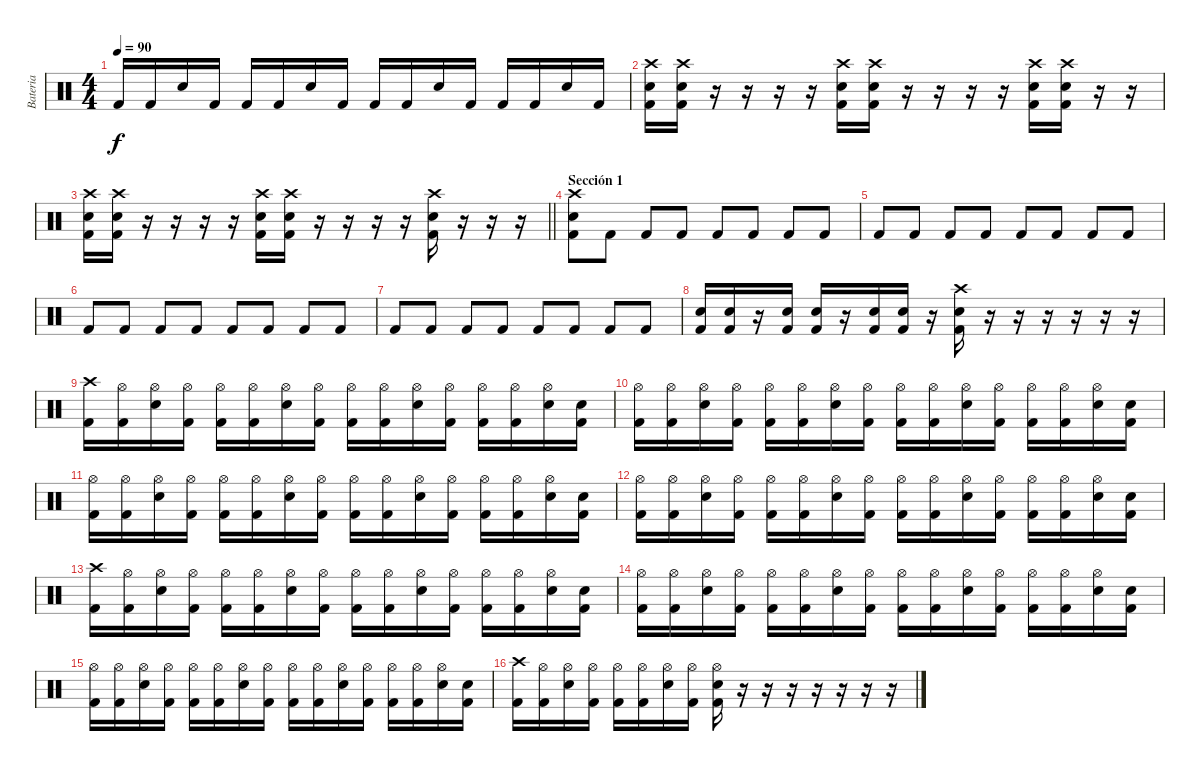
\track ("Bateria" "Bateria") {instrument percussion}
\staff {score}
\articulation defaults
\ts (4 4)
\tempo 90
\clef neutral
\ks c "Kick (hit) 2".16{dy f} "Kick (hit) 2".16 "Electric Snare (hit)".16 "Kick (hit) 2".16 "Kick (hit) 2".16 "Kick (hit) 2".16 "Electric Snare (hit)".16 "Kick (hit) 2".16 "Kick (hit) 2".16 "Kick (hit) 2".16 "Electric Snare (hit)".16 "Kick (hit) 2".16 "Kick (hit) 2".16 "Kick (hit) 2".16 "Electric Snare (hit)".16 "Kick (hit) 2".16
|
("Kick (hit) 2" "Electric Snare (hit)" "Crash high (hit)").16 ("Kick (hit) 2" "Electric Snare (hit)" "Crash high (hit)").16 r.16 r.16 r.16 r.16 ("Kick (hit) 2" "Electric Snare (hit)" "Crash high (hit)").16 ("Kick (hit) 2" "Electric Snare (hit)" "Crash high (hit)").16 r.16 r.16 r.16 r.16 ("Kick (hit) 2" "Electric Snare (hit)" "Crash high (hit)").16 ("Kick (hit) 2" "Electric Snare (hit)" "Crash high (hit)").16 r.16 r.16 |
\barLineRight lightlight
("Kick (hit) 2" "Electric Snare (hit)" "Crash high (hit)").16 ("Kick (hit) 2" "Electric Snare (hit)" "Crash high (hit)").16 r.16 r.16 r.16 r.16 ("Kick (hit) 2" "Electric Snare (hit)" "Crash high (hit)").16 ("Kick (hit) 2" "Electric Snare (hit)" "Crash high (hit)").16 r.16 r.16 r.16 r.16 ("Kick (hit) 2" "Electric Snare (hit)" "Crash high (hit)").16 r.16 r.16 r.16 |
\section ("" "Sección 1")
("Kick (hit) 2" "Electric Snare (hit)" "Crash high (hit)").8 "Kick (hit) 2".8 "Kick (hit) 2".8 "Kick (hit) 2".8 "Kick (hit) 2".8 "Kick (hit) 2".8 "Kick (hit) 2".8 "Kick (hit) 2".8 |
"Kick (hit) 2".8 "Kick (hit) 2".8 "Kick (hit) 2".8 "Kick (hit) 2".8 "Kick (hit) 2".8 "Kick (hit) 2".8 "Kick (hit) 2".8 "Kick (hit) 2".8 |
"Kick (hit) 2".8 "Kick (hit) 2".8 "Kick (hit) 2".8 "Kick (hit) 2".8 "Kick (hit) 2".8 "Kick (hit) 2".8 "Kick (hit) 2".8 "Kick (hit) 2".8 |
"Kick (hit) 2".8 "Kick (hit) 2".8 "Kick (hit) 2".8 "Kick (hit) 2".8 "Kick (hit) 2".8 "Kick (hit) 2".8 "Kick (hit) 2".8 "Kick (hit) 2".8 |
("Kick (hit) 2" "Electric Snare (hit)").16 ("Kick (hit) 2" "Electric Snare (hit)").16 r.16 ("Kick (hit) 2" "Electric Snare (hit)").16 ("Kick (hit) 2" "Electric Snare (hit)").16 r.16 ("Kick (hit) 2" "Electric Snare (hit)").16 ("Kick (hit) 2" "Electric Snare (hit)").16 r.16 ("Kick (hit) 2" "Electric Snare (hit)" "Crash high (hit)").16 r.16 r.16 r.16 r.16 r.16 r.16 |
("Kick (hit) 2" "Crash high (hit)").16 ("Kick (hit) 2" "Hi-Hat (open)").16 ("Electric Snare (hit)" "Hi-Hat (open)").16 ("Kick (hit) 2" "Hi-Hat (open)").16 ("Kick (hit) 2" "Hi-Hat (open)").16 ("Kick (hit) 2" "Hi-Hat (open)").16 ("Electric Snare (hit)" "Hi-Hat (open)").16 ("Kick (hit) 2" "Hi-Hat (open)").16 ("Kick (hit) 2" "Hi-Hat (open)").16 ("Kick (hit) 2" "Hi-Hat (open)").16 ("Electric Snare (hit)" "Hi-Hat (open)").16 ("Kick (hit) 2" "Hi-Hat (open)").16 ("Kick (hit) 2" "Hi-Hat (open)").16 ("Kick (hit) 2" "Hi-Hat (open)").16 ("Electric Snare (hit)" "Hi-Hat (open)").16 ("Kick (hit) 2" "Electric Snare (hit)").16 |
("Kick (hit) 2" "Hi-Hat (open)").16 ("Kick (hit) 2" "Hi-Hat (open)").16 ("Electric Snare (hit)" "Hi-Hat (open)").16 ("Kick (hit) 2" "Hi-Hat (open)").16 ("Kick (hit) 2" "Hi-Hat (open)").16 ("Kick (hit) 2" "Hi-Hat (open)").16 ("Electric Snare (hit)" "Hi-Hat (open)").16 ("Kick (hit) 2" "Hi-Hat (open)").16 ("Kick (hit) 2" "Hi-Hat (open)").16 ("Kick (hit) 2" "Hi-Hat (open)").16 ("Electric Snare (hit)" "Hi-Hat (open)").16 ("Kick (hit) 2" "Hi-Hat (open)").16 ("Kick (hit) 2" "Hi-Hat (open)").16 ("Kick (hit) 2" "Hi-Hat (open)").16 ("Electric Snare (hit)" "Hi-Hat (open)").16 ("Kick (hit) 2" "Electric Snare (hit)").16 |
("Kick (hit) 2" "Hi-Hat (open)").16 ("Kick (hit) 2" "Hi-Hat (open)").16 ("Electric Snare (hit)" "Hi-Hat (open)").16 ("Kick (hit) 2" "Hi-Hat (open)").16 ("Kick (hit) 2" "Hi-Hat (open)").16 ("Kick (hit) 2" "Hi-Hat (open)").16 ("Electric Snare (hit)" "Hi-Hat (open)").16 ("Kick (hit) 2" "Hi-Hat (open)").16 ("Kick (hit) 2" "Hi-Hat (open)").16 ("Kick (hit) 2" "Hi-Hat (open)").16 ("Electric Snare (hit)" "Hi-Hat (open)").16 ("Kick (hit) 2" "Hi-Hat (open)").16 ("Kick (hit) 2" "Hi-Hat (open)").16 ("Kick (hit) 2" "Hi-Hat (open)").16 ("Electric Snare (hit)" "Hi-Hat (open)").16 ("Kick (hit) 2" "Electric Snare (hit)").16 |
("Kick (hit) 2" "Hi-Hat (open)").16 ("Kick (hit) 2" "Hi-Hat (open)").16 ("Electric Snare (hit)" "Hi-Hat (open)").16 ("Kick (hit) 2" "Hi-Hat (open)").16 ("Kick (hit) 2" "Hi-Hat (open)").16 ("Kick (hit) 2" "Hi-Hat (open)").16 ("Electric Snare (hit)" "Hi-Hat (open)").16 ("Kick (hit) 2" "Hi-Hat (open)").16 ("Kick (hit) 2" "Hi-Hat (open)").16 ("Kick (hit) 2" "Hi-Hat (open)").16 ("Electric Snare (hit)" "Hi-Hat (open)").16 ("Kick (hit) 2" "Hi-Hat (open)").16 ("Kick (hit) 2" "Hi-Hat (open)").16 ("Kick (hit) 2" "Hi-Hat (open)").16 ("Electric Snare (hit)" "Hi-Hat (open)").16 ("Kick (hit) 2" "Electric Snare (hit)").16 |
("Kick (hit) 2" "Crash high (hit)").16 ("Kick (hit) 2" "Hi-Hat (open)").16 ("Electric Snare (hit)" "Hi-Hat (open)").16 ("Kick (hit) 2" "Hi-Hat (open)").16 ("Kick (hit) 2" "Hi-Hat (open)").16 ("Kick (hit) 2" "Hi-Hat (open)").16 ("Electric Snare (hit)" "Hi-Hat (open)").16 ("Kick (hit) 2" "Hi-Hat (open)").16 ("Kick (hit) 2" "Hi-Hat (open)").16 ("Kick (hit) 2" "Hi-Hat (open)").16 ("Electric Snare (hit)" "Hi-Hat (open)").16 ("Kick (hit) 2" "Hi-Hat (open)").16 ("Kick (hit) 2" "Hi-Hat (open)").16 ("Kick (hit) 2" "Hi-Hat (open)").16 ("Electric Snare (hit)" "Hi-Hat (open)").16 ("Kick (hit) 2" "Electric Snare (hit)").16 |
("Kick (hit) 2" "Hi-Hat (open)").16 ("Kick (hit) 2" "Hi-Hat (open)").16 ("Electric Snare (hit)" "Hi-Hat (open)").16 ("Kick (hit) 2" "Hi-Hat (open)").16 ("Kick (hit) 2" "Hi-Hat (open)").16 ("Kick (hit) 2" "Hi-Hat (open)").16 ("Electric Snare (hit)" "Hi-Hat (open)").16 ("Kick (hit) 2" "Hi-Hat (open)").16 ("Kick (hit) 2" "Hi-Hat (open)").16 ("Kick (hit) 2" "Hi-Hat (open)").16 ("Electric Snare (hit)" "Hi-Hat (open)").16 ("Kick (hit) 2" "Hi-Hat (open)").16 ("Kick (hit) 2" "Hi-Hat (open)").16 ("Kick (hit) 2" "Hi-Hat (open)").16 ("Electric Snare (hit)" "Hi-Hat (open)").16 ("Kick (hit) 2" "Electric Snare (hit)").16 |
("Kick (hit) 2" "Hi-Hat (open)").16 ("Kick (hit) 2" "Hi-Hat (open)").16 ("Electric Snare (hit)" "Hi-Hat (open)").16 ("Kick (hit) 2" "Hi-Hat (open)").16 ("Kick (hit) 2" "Hi-Hat (open)").16 ("Kick (hit) 2" "Hi-Hat (open)").16 ("Electric Snare (hit)" "Hi-Hat (open)").16 ("Kick (hit) 2" "Hi-Hat (open)").16 ("Kick (hit) 2" "Hi-Hat (open)").16 ("Kick (hit) 2" "Hi-Hat (open)").16 ("Electric Snare (hit)" "Hi-Hat (open)").16 ("Kick (hit) 2" "Hi-Hat (open)").16 ("Kick (hit) 2" "Hi-Hat (open)").16 ("Kick (hit) 2" "Hi-Hat (open)").16 ("Electric Snare (hit)" "Hi-Hat (open)").16 ("Kick (hit) 2" "Electric Snare (hit)").16 |
("Kick (hit) 2" "Crash high (hit)").16 ("Kick (hit) 2" "Hi-Hat (open)").16 ("Electric Snare (hit)" "Hi-Hat (open)").16 ("Kick (hit) 2" "Hi-Hat (open)").16 ("Kick (hit) 2" "Hi-Hat (open)").16 ("Kick (hit) 2" "Hi-Hat (open)").16 ("Electric Snare (hit)" "Hi-Hat (open)").16 ("Kick (hit) 2" "Hi-Hat (open)").16 ("Kick (hit) 2" "Electric Snare (hit)" "Hi-Hat (open)").16 r.16 r.16 r.16 r.16 r.16 r.16 r.16
